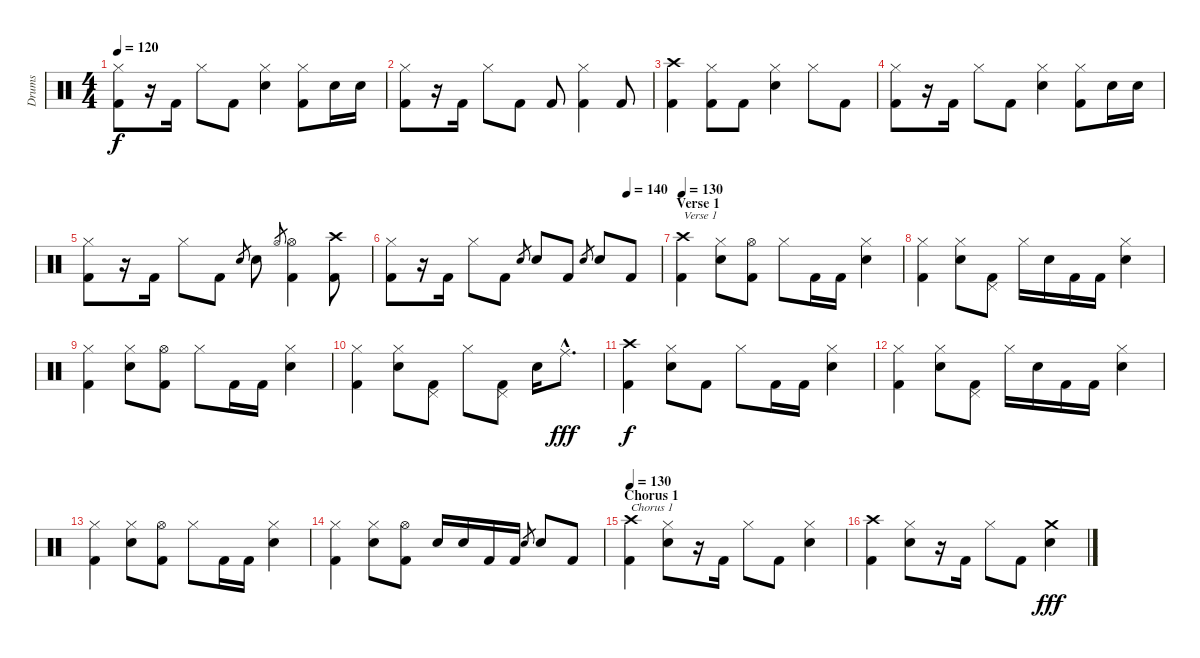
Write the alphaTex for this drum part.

\track ("Drums" "Drums") {instrument percussion}
\staff {score}
\articulation defaults
\ts (4 4)
\tempo 120
\clef neutral
\ks c
("Hi-Hat (closed)" "Kick (hit) 2").8{dy f} r.16 "Kick (hit) 2".16 "Hi-Hat (closed)".8 "Kick (hit) 2".8 ("Hi-Hat (closed)" "Electric Snare (hit)").4 ("Hi-Hat (closed)" "Kick (hit) 2").8 "Electric Snare (hit)".16 "Electric Snare (hit)".16 |
("Hi-Hat (closed)" "Kick (hit) 2").8 r.16 "Kick (hit) 2".16 "Hi-Hat (closed)".8 "Kick (hit) 2".8 "Kick (hit) 2".8 ("Hi-Hat (closed)" "Kick (hit) 2").4 "Kick (hit) 2".8 |
("Crash high (hit)" "Kick (hit) 2").4 ("Hi-Hat (closed)" "Kick (hit) 2").8 "Kick (hit) 2".8 ("Hi-Hat (closed)" "Electric Snare (hit)").4 "Hi-Hat (closed)".8 "Kick (hit) 2".8 |
("Hi-Hat (closed)" "Kick (hit) 2").8 r.16 "Kick (hit) 2".16 "Hi-Hat (closed)".8 "Kick (hit) 2".8 ("Hi-Hat (closed)" "Electric Snare (hit)").4 ("Hi-Hat (closed)" "Kick (hit) 2").8 "Electric Snare (hit)".16 "Electric Snare (hit)".16 |
("Hi-Hat (closed)" "Kick (hit) 2").8 r.16 "Kick (hit) 2".16 "Hi-Hat (closed)".8 "Kick (hit) 2".8 "Electric Snare (hit)".8{gr} "Electric Snare (hit)".8 "Hi-Hat (open)".8{gr} ("Hi-Hat (open)" "Kick (hit) 2").4 ("Crash high (hit)" "Kick (hit) 2").8 |
\tempo (140 0.875)
("Hi-Hat (closed)" "Kick (hit) 2").8 r.16 "Kick (hit) 2".16 "Hi-Hat (closed)".8 "Kick (hit) 2".8 "Electric Snare (hit)".8{gr} "Electric Snare (hit)".8 "Kick (hit) 2".8 "Electric Snare (hit)".8{gr} "Electric Snare (hit)".8 "Kick (hit) 2".8 |
\section ("" "Verse 1")
\tempo 130
("Crash high (hit)" "Kick (hit) 2").4{txt "Verse 1"} ("Hi-Hat (closed)" "Electric Snare (hit)").8 ("Hi-Hat (open)" "Kick (hit) 2").8 "Hi-Hat (closed)".8 "Kick (hit) 2".16 "Kick (hit) 2".16 ("Hi-Hat (closed)" "Electric Snare (hit)").4 |
("Hi-Hat (closed)" "Kick (hit) 2").4 ("Hi-Hat (closed)" "Electric Snare (hit)").8 ("Pedal Hi-Hat (hit)" "Kick (hit) 2").8 "Hi-Hat (closed)".16 "Electric Snare (hit)".16 "Kick (hit) 2".16 "Kick (hit) 2".16 ("Hi-Hat (closed)" "Electric Snare (hit)").4 |
("Hi-Hat (closed)" "Kick (hit) 2").4 ("Hi-Hat (closed)" "Electric Snare (hit)").8 ("Hi-Hat (open)" "Kick (hit) 2").8 "Hi-Hat (closed)".8 "Kick (hit) 2".16 "Kick (hit) 2".16 ("Hi-Hat (closed)" "Electric Snare (hit)").4 |
("Hi-Hat (closed)" "Kick (hit) 2").4 ("Hi-Hat (closed)" "Electric Snare (hit)").8 ("Pedal Hi-Hat (hit)" "Kick (hit) 2").8 "Hi-Hat (closed)".8 ("Pedal Hi-Hat (hit)" "Kick (hit) 2").8 "Electric Snare (hit)".16 "Ride (middle)"{hac}.8{d dy fff} |
("Crash high (hit)" "Kick (hit) 2").4{dy f} ("Hi-Hat (closed)" "Electric Snare (hit)").8 "Kick (hit) 2".8 "Hi-Hat (closed)".8 "Kick (hit) 2".16 "Kick (hit) 2".16 ("Hi-Hat (closed)" "Electric Snare (hit)").4 |
("Hi-Hat (closed)" "Kick (hit) 2").4 ("Hi-Hat (closed)" "Electric Snare (hit)").8 ("Pedal Hi-Hat (hit)" "Kick (hit) 2").8 "Hi-Hat (closed)".16 "Electric Snare (hit)".16 "Kick (hit) 2".16 "Kick (hit) 2".16 ("Hi-Hat (closed)" "Electric Snare (hit)").4 |
("Hi-Hat (closed)" "Kick (hit) 2").4 ("Hi-Hat (closed)" "Electric Snare (hit)").8 ("Hi-Hat (open)" "Kick (hit) 2").8 "Hi-Hat (closed)".8 "Kick (hit) 2".16 "Kick (hit) 2".16 ("Hi-Hat (closed)" "Electric Snare (hit)").4 |
("Hi-Hat (closed)" "Kick (hit) 2").4 ("Hi-Hat (closed)" "Electric Snare (hit)").8 ("Hi-Hat (open)" "Kick (hit) 2").8 "Electric Snare (hit)".16 "Electric Snare (hit)".16 "Kick (hit) 2".16 "Kick (hit) 2".16 "Electric Snare (hit)".8{gr} "Electric Snare (hit)".8 "Kick (hit) 2".8 |
\section ("" "Chorus 1")
\tempo 130
("Crash high (hit)" "Kick (hit) 2").4{txt "Chorus 1"} ("Hi-Hat (closed)" "Electric Snare (hit)").8 r.16 "Kick (hit) 2".16 "Hi-Hat (closed)".8 "Kick (hit) 2".8 ("Hi-Hat (closed)" "Electric Snare (hit)").4 |
("Crash high (hit)" "Kick (hit) 2").4 ("Hi-Hat (closed)" "Electric Snare (hit)").8 r.16 "Kick (hit) 2".16 "Hi-Hat (closed)".8 "Kick (hit) 2".8 ("Crash medium (hit)" "Electric Snare (hit)").4{dy fff}
